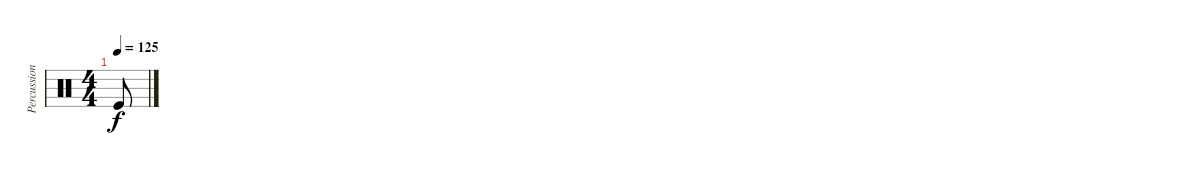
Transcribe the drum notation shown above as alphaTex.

\track ("Percussion" "Percussion") {instrument percussion}
\staff {score}
\articulation defaults
\ts (4 4)
\tempo 125
\clef neutral
\ks c "Kick (hit)".8{dy f}
